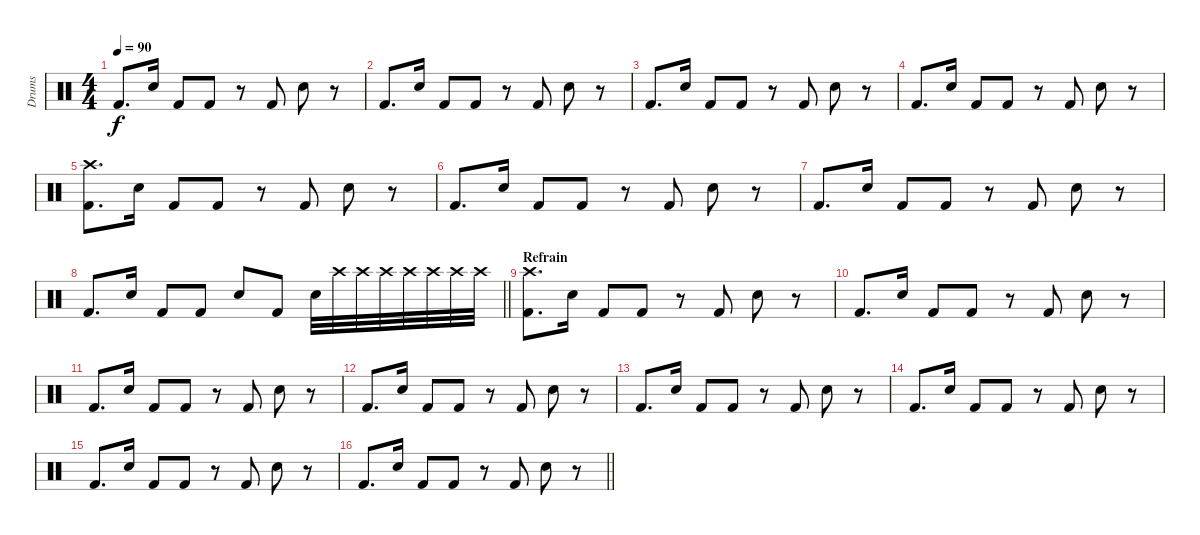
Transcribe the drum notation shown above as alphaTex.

\track ("Drums" "Drums") {instrument percussion}
\staff {score}
\articulation defaults
\ts (4 4)
\tempo 90
\clef neutral
\ks c "Kick (hit) 2".8{d dy f} "Hand Clap (hit)".16 "Kick (hit) 2".8 "Kick (hit) 2".8
r.8 "Kick (hit) 2".8 "Hand Clap (hit)".8 r.8 |
"Kick (hit) 2".8{d} "Hand Clap (hit)".16 "Kick (hit) 2".8 "Kick (hit) 2".8 r.8 "Kick (hit) 2".8 "Hand Clap (hit)".8 r.8 |
"Kick (hit) 2".8{d} "Hand Clap (hit)".16 "Kick (hit) 2".8 "Kick (hit) 2".8 r.8 "Kick (hit) 2".8 "Hand Clap (hit)".8 r.8 |
"Kick (hit) 2".8{d} "Hand Clap (hit)".16 "Kick (hit) 2".8 "Kick (hit) 2".8 r.8 "Kick (hit) 2".8 "Hand Clap (hit)".8 r.8 |
("Kick (hit) 2" "Crash high (hit)").8{d} "Hand Clap (hit)".16 "Kick (hit) 2".8 "Kick (hit) 2".8 r.8 "Kick (hit) 2".8 "Hand Clap (hit)".8 r.8 |
"Kick (hit) 2".8{d} "Hand Clap (hit)".16 "Kick (hit) 2".8 "Kick (hit) 2".8 r.8 "Kick (hit) 2".8 "Hand Clap (hit)".8 r.8 |
"Kick (hit) 2".8{d} "Hand Clap (hit)".16 "Kick (hit) 2".8 "Kick (hit) 2".8 r.8 "Kick (hit) 2".8 "Hand Clap (hit)".8 r.8 |
\barLineRight lightlight "Kick (hit) 2".8{d} "Hand Clap (hit)".16 "Kick (hit) 2".8 "Kick (hit) 2".8 "Hand Clap (hit)".8 "Kick (hit) 2".8 "Hand Clap (hit)".32 "Crash high (hit)".32{volume 6} "Crash high (hit)".32{volume 7} "Crash high (hit)".32{volume 8} "Crash high (hit)".32{volume 9} "Crash high (hit)".32{volume 10} "Crash high (hit)".32{volume 11} "Crash high (hit)".32{volume 12}
|
\section ("" "Refrain")
("Kick (hit) 2" "Crash high (hit)").8{d} "Hand Clap (hit)".16 "Kick (hit) 2".8 "Kick (hit) 2".8 r.8 "Kick (hit) 2".8 "Hand Clap (hit)".8 r.8 |
"Kick (hit) 2".8{d} "Hand Clap (hit)".16 "Kick (hit) 2".8 "Kick (hit) 2".8 r.8 "Kick (hit) 2".8 "Hand Clap (hit)".8 r.8 |
"Kick (hit) 2".8{d} "Hand Clap (hit)".16 "Kick (hit) 2".8 "Kick (hit) 2".8 r.8 "Kick (hit) 2".8 "Hand Clap (hit)".8 r.8 |
"Kick (hit) 2".8{d} "Hand Clap (hit)".16 "Kick (hit) 2".8 "Kick (hit) 2".8 r.8 "Kick (hit) 2".8 "Hand Clap (hit)".8 r.8 |
"Kick (hit) 2".8{d} "Hand Clap (hit)".16 "Kick (hit) 2".8 "Kick (hit) 2".8 r.8 "Kick (hit) 2".8 "Hand Clap (hit)".8 r.8 |
"Kick (hit) 2".8{d} "Hand Clap (hit)".16 "Kick (hit) 2".8 "Kick (hit) 2".8 r.8 "Kick (hit) 2".8 "Hand Clap (hit)".8 r.8 |
"Kick (hit) 2".8{d} "Hand Clap (hit)".16 "Kick (hit) 2".8 "Kick (hit) 2".8 r.8 "Kick (hit) 2".8 "Hand Clap (hit)".8 r.8 |
\barLineRight lightlight "Kick (hit) 2".8{d} "Hand Clap (hit)".16 "Kick (hit) 2".8 "Kick (hit) 2".8
r.8 "Kick (hit) 2".8 "Hand Clap (hit)".8 r.8
